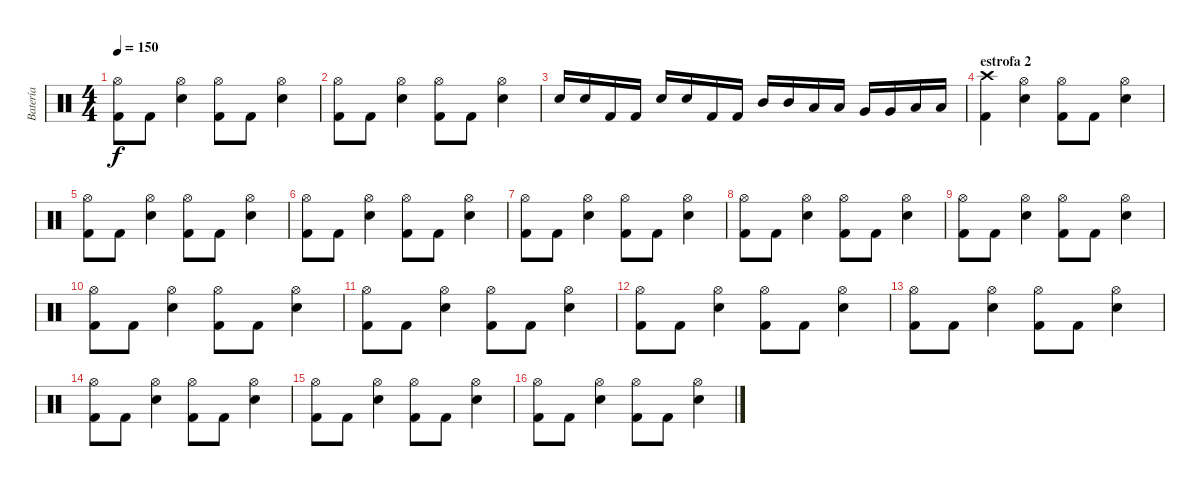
\track ("Batería" "Batería") {instrument percussion}
\staff {score}
\articulation defaults
\ts (4 4)
\tempo 150
\clef neutral
\ks c
("Hi-Hat (open)" "Kick (hit) 2").8{dy f} "Kick (hit) 2".8 ("Hi-Hat (open)" "Electric Snare (hit)").4 ("Kick (hit) 2" "Hi-Hat (open)").8 "Kick (hit) 2".8 ("Hi-Hat (open)" "Electric Snare (hit)").4 |
("Hi-Hat (open)" "Kick (hit) 2").8 "Kick (hit) 2".8 ("Hi-Hat (open)" "Electric Snare (hit)").4 ("Kick (hit) 2" "Hi-Hat (open)").8 "Kick (hit) 2".8 ("Hi-Hat (open)" "Electric Snare (hit)").4 |
"Electric Snare (hit)".16 "Electric Snare (hit)".16 "Kick (hit) 2".16 "Kick (hit) 2".16 "Electric Snare (hit)".16 "Electric Snare (hit)".16 "Kick (hit) 2".16 "Kick (hit) 2".16 "Mid Tom (hit)".16 "Mid Tom (hit)".16 "Low Tom (hit)".16 "Low Tom (hit)".16 "Very Low Tom (hit)".16 "Very Low Tom (hit)".16 "Low Floor Tom (hit)".16 "Low Floor Tom (hit)".16 |
\section ("" "estrofa 2")
("Crash high (hit)" "Kick (hit) 2").4 ("Hi-Hat (open)" "Electric Snare (hit)").4 ("Kick (hit) 2" "Hi-Hat (open)").8 "Kick (hit) 2".8 ("Hi-Hat (open)" "Electric Snare (hit)").4 |
("Hi-Hat (open)" "Kick (hit) 2").8 "Kick (hit) 2".8 ("Hi-Hat (open)" "Electric Snare (hit)").4 ("Kick (hit) 2" "Hi-Hat (open)").8 "Kick (hit) 2".8 ("Hi-Hat (open)" "Electric Snare (hit)").4 |
("Hi-Hat (open)" "Kick (hit) 2").8 "Kick (hit) 2".8 ("Hi-Hat (open)" "Electric Snare (hit)").4 ("Kick (hit) 2" "Hi-Hat (open)").8 "Kick (hit) 2".8 ("Hi-Hat (open)" "Electric Snare (hit)").4 |
("Hi-Hat (open)" "Kick (hit) 2").8 "Kick (hit) 2".8 ("Hi-Hat (open)" "Electric Snare (hit)").4 ("Kick (hit) 2" "Hi-Hat (open)").8 "Kick (hit) 2".8 ("Hi-Hat (open)" "Electric Snare (hit)").4 |
("Hi-Hat (open)" "Kick (hit) 2").8 "Kick (hit) 2".8 ("Hi-Hat (open)" "Electric Snare (hit)").4 ("Kick (hit) 2" "Hi-Hat (open)").8 "Kick (hit) 2".8 ("Hi-Hat (open)" "Electric Snare (hit)").4 |
("Hi-Hat (open)" "Kick (hit) 2").8 "Kick (hit) 2".8 ("Hi-Hat (open)" "Electric Snare (hit)").4 ("Kick (hit) 2" "Hi-Hat (open)").8 "Kick (hit) 2".8 ("Hi-Hat (open)" "Electric Snare (hit)").4 |
("Hi-Hat (open)" "Kick (hit) 2").8 "Kick (hit) 2".8 ("Hi-Hat (open)" "Electric Snare (hit)").4 ("Kick (hit) 2" "Hi-Hat (open)").8 "Kick (hit) 2".8 ("Hi-Hat (open)" "Electric Snare (hit)").4 |
("Hi-Hat (open)" "Kick (hit) 2").8 "Kick (hit) 2".8 ("Hi-Hat (open)" "Electric Snare (hit)").4 ("Kick (hit) 2" "Hi-Hat (open)").8 "Kick (hit) 2".8 ("Hi-Hat (open)" "Electric Snare (hit)").4 |
("Hi-Hat (open)" "Kick (hit) 2").8 "Kick (hit) 2".8 ("Hi-Hat (open)" "Electric Snare (hit)").4 ("Kick (hit) 2" "Hi-Hat (open)").8 "Kick (hit) 2".8 ("Hi-Hat (open)" "Electric Snare (hit)").4 |
("Hi-Hat (open)" "Kick (hit) 2").8 "Kick (hit) 2".8 ("Hi-Hat (open)" "Electric Snare (hit)").4 ("Kick (hit) 2" "Hi-Hat (open)").8 "Kick (hit) 2".8 ("Hi-Hat (open)" "Electric Snare (hit)").4 |
("Hi-Hat (open)" "Kick (hit) 2").8 "Kick (hit) 2".8 ("Hi-Hat (open)" "Electric Snare (hit)").4 ("Kick (hit) 2" "Hi-Hat (open)").8 "Kick (hit) 2".8 ("Hi-Hat (open)" "Electric Snare (hit)").4 |
("Hi-Hat (open)" "Kick (hit) 2").8 "Kick (hit) 2".8 ("Hi-Hat (open)" "Electric Snare (hit)").4 ("Kick (hit) 2" "Hi-Hat (open)").8 "Kick (hit) 2".8 ("Hi-Hat (open)" "Electric Snare (hit)").4 |
("Hi-Hat (open)" "Kick (hit) 2").8 "Kick (hit) 2".8 ("Hi-Hat (open)" "Electric Snare (hit)").4 ("Kick (hit) 2" "Hi-Hat (open)").8 "Kick (hit) 2".8 ("Hi-Hat (open)" "Electric Snare (hit)").4
